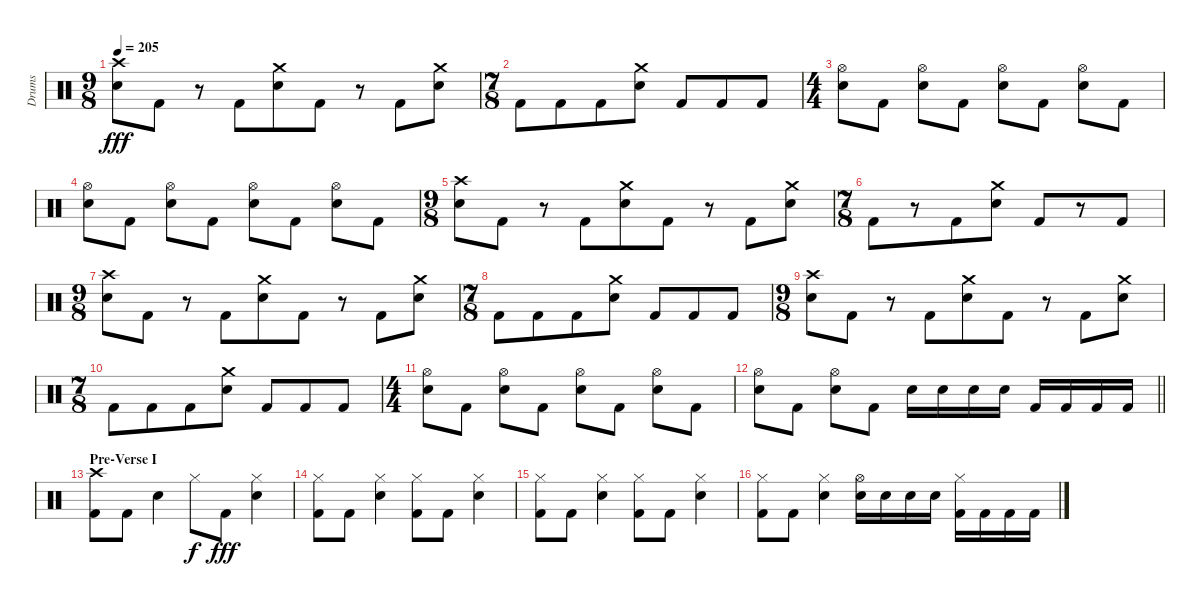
\track ("Drums" "Drums") {instrument percussion}
\staff {score}
\articulation defaults
\ts (9 8)
\tempo 205
\clef neutral
\ks c
("Crash high (hit)" "Snare (hit) 2").8{dy fff} "Kick (hit) 2".8 r.8 "Kick (hit) 2".8 ("Crash medium (hit)" "Snare (hit) 2").8 "Kick (hit) 2".8 r.8 "Kick (hit) 2".8 ("Crash medium (hit)" "Snare (hit) 2").8 |
\ts (7 8)
"Kick (hit) 2".8 "Kick (hit) 2".8 "Kick (hit) 2".8 ("Crash medium (hit)" "Snare (hit) 2").8 "Kick (hit) 2".8 "Kick (hit) 2".8 "Kick (hit) 2".8 |
\ts (4 4)
("Hi-Hat (open)" "Snare (hit) 2").8 "Kick (hit) 2".8 ("Hi-Hat (open)" "Snare (hit) 2").8 "Kick (hit) 2".8 ("Hi-Hat (open)" "Snare (hit) 2").8 "Kick (hit) 2".8 ("Hi-Hat (open)" "Snare (hit) 2").8 "Kick (hit) 2".8 |
("Hi-Hat (open)" "Snare (hit) 2").8 "Kick (hit) 2".8 ("Hi-Hat (open)" "Snare (hit) 2").8 "Kick (hit) 2".8 ("Hi-Hat (open)" "Snare (hit) 2").8 "Kick (hit) 2".8 ("Hi-Hat (open)" "Snare (hit) 2").8 "Kick (hit) 2".8 |
\ts (9 8)
("Crash high (hit)" "Snare (hit) 2").8 "Kick (hit) 2".8 r.8 "Kick (hit) 2".8 ("Crash medium (hit)" "Snare (hit) 2").8 "Kick (hit) 2".8 r.8 "Kick (hit) 2".8 ("Crash medium (hit)" "Snare (hit) 2").8 |
\ts (7 8)
"Kick (hit) 2".8 r.8 "Kick (hit) 2".8 ("Crash medium (hit)" "Snare (hit) 2").8 "Kick (hit) 2".8 r.8 "Kick (hit) 2".8 |
\ts (9 8)
("Crash high (hit)" "Snare (hit) 2").8 "Kick (hit) 2".8 r.8 "Kick (hit) 2".8 ("Crash medium (hit)" "Snare (hit) 2").8 "Kick (hit) 2".8 r.8 "Kick (hit) 2".8 ("Crash medium (hit)" "Snare (hit) 2").8 |
\ts (7 8)
"Kick (hit) 2".8 "Kick (hit) 2".8 "Kick (hit) 2".8 ("Crash medium (hit)" "Snare (hit) 2").8 "Kick (hit) 2".8 "Kick (hit) 2".8 "Kick (hit) 2".8 |
\ts (9 8)
("Crash high (hit)" "Snare (hit) 2").8 "Kick (hit) 2".8 r.8 "Kick (hit) 2".8 ("Crash medium (hit)" "Snare (hit) 2").8 "Kick (hit) 2".8 r.8 "Kick (hit) 2".8 ("Crash medium (hit)" "Snare (hit) 2").8 |
\ts (7 8)
"Kick (hit) 2".8 "Kick (hit) 2".8 "Kick (hit) 2".8 ("Crash medium (hit)" "Snare (hit) 2").8 "Kick (hit) 2".8 "Kick (hit) 2".8 "Kick (hit) 2".8 |
\ts (4 4)
("Hi-Hat (open)" "Snare (hit) 2").8 "Kick (hit) 2".8 ("Hi-Hat (open)" "Snare (hit) 2").8 "Kick (hit) 2".8 ("Hi-Hat (open)" "Snare (hit) 2").8 "Kick (hit) 2".8 ("Hi-Hat (open)" "Snare (hit) 2").8 "Kick (hit) 2".8 |
\barLineRight lightlight
("Hi-Hat (open)" "Snare (hit) 2").8 "Kick (hit) 2".8 ("Hi-Hat (open)" "Snare (hit) 2").8 "Kick (hit) 2".8 "Snare (hit) 2".16 "Snare (hit) 2".16 "Snare (hit) 2".16 "Snare (hit) 2".16 "Kick (hit) 2".16 "Kick (hit) 2".16 "Kick (hit) 2".16 "Kick (hit) 2".16 |
\section ("" "Pre-Verse I")
("Crash high (hit)" "Kick (hit) 2").8 "Kick (hit) 2".8 "Snare (hit) 2".4 "Hi-Hat (closed)".8{dy f} "Kick (hit) 2".8{dy fff} ("Hi-Hat (closed)" "Snare (hit) 2").4 |
("Hi-Hat (closed)" "Kick (hit) 2").8 "Kick (hit) 2".8 ("Hi-Hat (closed)" "Snare (hit) 2").4 ("Hi-Hat (closed)" "Kick (hit) 2").8 "Kick (hit) 2".8 ("Hi-Hat (closed)" "Snare (hit) 2").4 |
("Hi-Hat (closed)" "Kick (hit) 2").8 "Kick (hit) 2".8 ("Hi-Hat (closed)" "Snare (hit) 2").4 ("Hi-Hat (closed)" "Kick (hit) 2").8 "Kick (hit) 2".8 ("Hi-Hat (closed)" "Snare (hit) 2").4 |
("Hi-Hat (closed)" "Kick (hit) 2").8 "Kick (hit) 2".8 ("Hi-Hat (closed)" "Snare (hit) 2").4 ("Hi-Hat (open)" "Snare (hit) 2").16 "Snare (hit) 2".16 "Snare (hit) 2".16 "Snare (hit) 2".16 ("Hi-Hat (closed)" "Kick (hit) 2").16 "Kick (hit) 2".16 "Kick (hit) 2".16 "Kick (hit) 2".16
